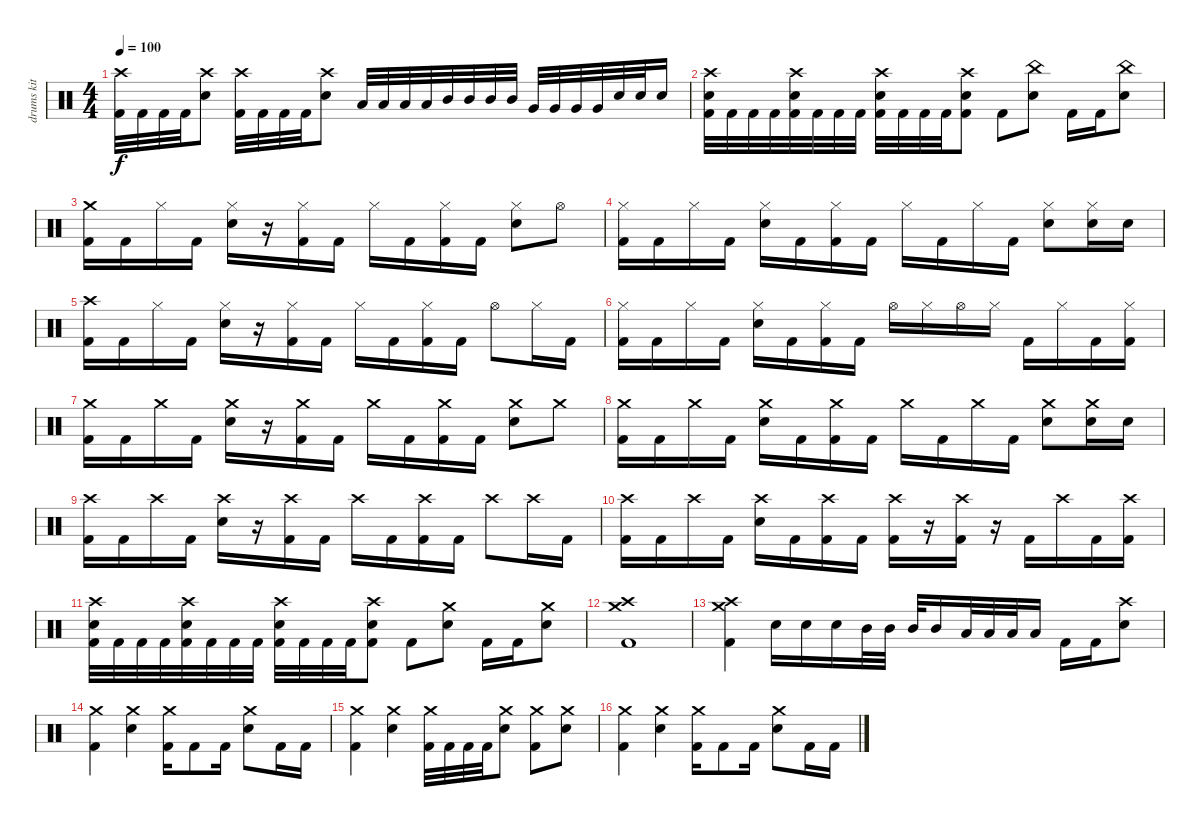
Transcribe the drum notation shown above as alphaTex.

\track ("drums kit" "drums kit") {instrument percussion}
\staff {score}
\articulation defaults
\ts (4 4)
\tempo 100
\clef neutral
\ks c
("Crash high (hit)" "Kick (hit) 2").32{dy f} "Kick (hit) 2".32 "Kick (hit) 2".32 "Kick (hit) 2".32 ("Crash high (hit)" "Snare (hit) 2").8 ("Crash high (hit)" "Kick (hit) 2").32 "Kick (hit) 2".32 "Kick (hit) 2".32 "Kick (hit) 2".32 ("Crash high (hit)" "Snare (hit) 2").8 "Low Tom (hit)".32 "Low Tom (hit)".32 "Low Tom (hit)".32 "Low Tom (hit)".32 "Mid Tom (hit)".32 "Mid Tom (hit)".32 "Mid Tom (hit)".32 "Mid Tom (hit)".32 "Very Low Tom (hit)".32 "Very Low Tom (hit)".32 "Very Low Tom (hit)".32 "Very Low Tom (hit)".32 "Snare (hit) 2".32 "Snare (hit) 2".32 "Snare (hit) 2".16 |
("Crash high (hit)" "Snare (hit) 2" "Kick (hit) 2").32 "Kick (hit) 2".32 "Kick (hit) 2".32 "Kick (hit) 2".32 ("Crash high (hit)" "Snare (hit) 2" "Kick (hit) 2").32 "Kick (hit) 2".32 "Kick (hit) 2".32 "Kick (hit) 2".32 ("Crash high (hit)" "Snare (hit) 2" "Kick (hit) 2").32 "Kick (hit) 2".32 "Kick (hit) 2".32 "Kick (hit) 2".32 ("Crash high (hit)" "Snare (hit) 2" "Kick (hit) 2").8 "Kick (hit) 2".8 ("China (hit)" "Snare (hit) 2").8 "Kick (hit) 2".16 "Kick (hit) 2".16 ("China (hit)" "Snare (hit) 2").8 |
("Crash medium (hit)" "Kick (hit) 2").16 "Kick (hit) 2".16 "Hi-Hat (closed)".16 "Kick (hit) 2".16 ("Hi-Hat (closed)" "Snare (hit) 2").16 r.16 ("Hi-Hat (closed)" "Kick (hit) 2").16 "Kick (hit) 2".16 "Hi-Hat (closed)".16 "Kick (hit) 2".16 ("Hi-Hat (closed)" "Kick (hit) 2").16 "Kick (hit) 2".16 ("Hi-Hat (closed)" "Snare (hit) 2").8 "Hi-Hat (open)".8 |
("Hi-Hat (closed)" "Kick (hit) 2").16 "Kick (hit) 2".16 "Hi-Hat (closed)".16 "Kick (hit) 2".16 ("Hi-Hat (closed)" "Snare (hit) 2").16 "Kick (hit) 2".16 ("Hi-Hat (closed)" "Kick (hit) 2").16 "Kick (hit) 2".16 "Hi-Hat (closed)".16 "Kick (hit) 2".16 "Hi-Hat (closed)".16 "Kick (hit) 2".16 ("Hi-Hat (closed)" "Snare (hit) 2").8 ("Hi-Hat (closed)" "Snare (hit) 2").16 "Snare (hit) 2".16 |
("Crash high (hit)" "Kick (hit) 2").16 "Kick (hit) 2".16 "Hi-Hat (closed)".16 "Kick (hit) 2".16 ("Hi-Hat (closed)" "Snare (hit) 2").16 r.16 ("Hi-Hat (closed)" "Kick (hit) 2").16 "Kick (hit) 2".16 "Hi-Hat (closed)".16 "Kick (hit) 2".16 ("Hi-Hat (closed)" "Kick (hit) 2").16 "Kick (hit) 2".16 "Hi-Hat (open)".8 "Hi-Hat (closed)".16 "Kick (hit) 2".16 |
("Hi-Hat (closed)" "Kick (hit) 2").16 "Kick (hit) 2".16 "Hi-Hat (closed)".16 "Kick (hit) 2".16 ("Hi-Hat (closed)" "Snare (hit) 2").16 "Kick (hit) 2".16 ("Hi-Hat (closed)" "Kick (hit) 2").16 "Kick (hit) 2".16 "Hi-Hat (open)".16 "Hi-Hat (closed)".16 "Hi-Hat (open)".16 "Hi-Hat (closed)".16 "Kick (hit) 2".16 "Hi-Hat (closed)".16 "Kick (hit) 2".16 ("Hi-Hat (closed)" "Kick (hit) 2").16 |
("Crash medium (hit)" "Kick (hit) 2").16 "Kick (hit) 2".16 "Crash medium (hit)".16 "Kick (hit) 2".16 ("Crash medium (hit)" "Snare (hit) 2").16 r.16 ("Crash medium (hit)" "Kick (hit) 2").16 "Kick (hit) 2".16 "Crash medium (hit)".16 "Kick (hit) 2".16 ("Crash medium (hit)" "Kick (hit) 2").16 "Kick (hit) 2".16 ("Crash medium (hit)" "Snare (hit) 2").8 "Crash medium (hit)".8 |
("Crash medium (hit)" "Kick (hit) 2").16 "Kick (hit) 2".16 "Crash medium (hit)".16 "Kick (hit) 2".16 ("Crash medium (hit)" "Snare (hit) 2").16 "Kick (hit) 2".16 ("Crash medium (hit)" "Kick (hit) 2").16 "Kick (hit) 2".16 "Crash medium (hit)".16 "Kick (hit) 2".16 "Crash medium (hit)".16 "Kick (hit) 2".16 ("Crash medium (hit)" "Snare (hit) 2").8 ("Crash medium (hit)" "Snare (hit) 2").16 "Snare (hit) 2".16 |
("Crash high (hit)" "Kick (hit) 2").16 "Kick (hit) 2".16 "Crash high (hit)".16 "Kick (hit) 2".16 ("Crash high (hit)" "Snare (hit) 2").16 r.16 ("Crash high (hit)" "Kick (hit) 2").16 "Kick (hit) 2".16 "Crash high (hit)".16 "Kick (hit) 2".16 ("Crash high (hit)" "Kick (hit) 2").16 "Kick (hit) 2".16 "Crash high (hit)".8 "Crash high (hit)".16 "Kick (hit) 2".16 |
("Crash high (hit)" "Kick (hit) 2").16 "Kick (hit) 2".16 "Crash high (hit)".16 "Kick (hit) 2".16 ("Crash high (hit)" "Snare (hit) 2").16 "Kick (hit) 2".16 ("Crash high (hit)" "Kick (hit) 2").16 "Kick (hit) 2".16 ("Crash high (hit)" "Kick (hit) 2").16 r.16 ("Crash high (hit)" "Kick (hit) 2").16 r.16 "Kick (hit) 2".16 "Crash high (hit)".16 "Kick (hit) 2".16 ("Crash high (hit)" "Kick (hit) 2").16 |
("Crash high (hit)" "Snare (hit) 2" "Kick (hit) 2").32 "Kick (hit) 2".32 "Kick (hit) 2".32 "Kick (hit) 2".32 ("Crash high (hit)" "Snare (hit) 2" "Kick (hit) 2").32 "Kick (hit) 2".32 "Kick (hit) 2".32 "Kick (hit) 2".32 ("Crash high (hit)" "Snare (hit) 2" "Kick (hit) 2").32 "Kick (hit) 2".32 "Kick (hit) 2".32 "Kick (hit) 2".32 ("Crash high (hit)" "Snare (hit) 2" "Kick (hit) 2").8 "Kick (hit) 2".8 ("Crash medium (hit)" "Snare (hit) 2").8 "Kick (hit) 2".16 "Kick (hit) 2".16 ("Crash medium (hit)" "Snare (hit) 2").8 |
("Crash high (hit)" "Crash medium (hit)" "Kick (hit) 2").1 |
("Crash high (hit)" "Crash medium (hit)" "Kick (hit) 2").4 "Snare (hit) 2".16 "Snare (hit) 2".16 "Snare (hit) 2".16 "Mid Tom (hit)".32 "Mid Tom (hit)".32 "Mid Tom (hit)".32 "Mid Tom (hit)".16 "Low Tom (hit)".32 "Low Tom (hit)".32 "Low Tom (hit)".32 "Low Tom (hit)".16 "Kick (hit) 2".16 "Kick (hit) 2".16 ("Crash high (hit)" "Snare (hit) 2").8 |
("Crash medium (hit)" "Kick (hit) 2").4 ("Crash medium (hit)" "Snare (hit) 2").4 ("Crash medium (hit)" "Kick (hit) 2").16 "Kick (hit) 2".8 "Kick (hit) 2".16 ("Crash medium (hit)" "Snare (hit) 2").8 "Kick (hit) 2".16 "Kick (hit) 2".16 |
("Crash medium (hit)" "Kick (hit) 2").4 ("Crash medium (hit)" "Snare (hit) 2").4 ("Crash medium (hit)" "Kick (hit) 2").32 "Kick (hit) 2".32 "Kick (hit) 2".32 "Kick (hit) 2".32 ("Crash medium (hit)" "Snare (hit) 2").8 ("Crash medium (hit)" "Kick (hit) 2").8 ("Crash medium (hit)" "Snare (hit) 2").8 |
("Crash medium (hit)" "Kick (hit) 2").4 ("Crash medium (hit)" "Snare (hit) 2").4 ("Crash medium (hit)" "Kick (hit) 2").16 "Kick (hit) 2".8 "Kick (hit) 2".16 ("Crash medium (hit)" "Snare (hit) 2").8 "Kick (hit) 2".16 "Kick (hit) 2".16
